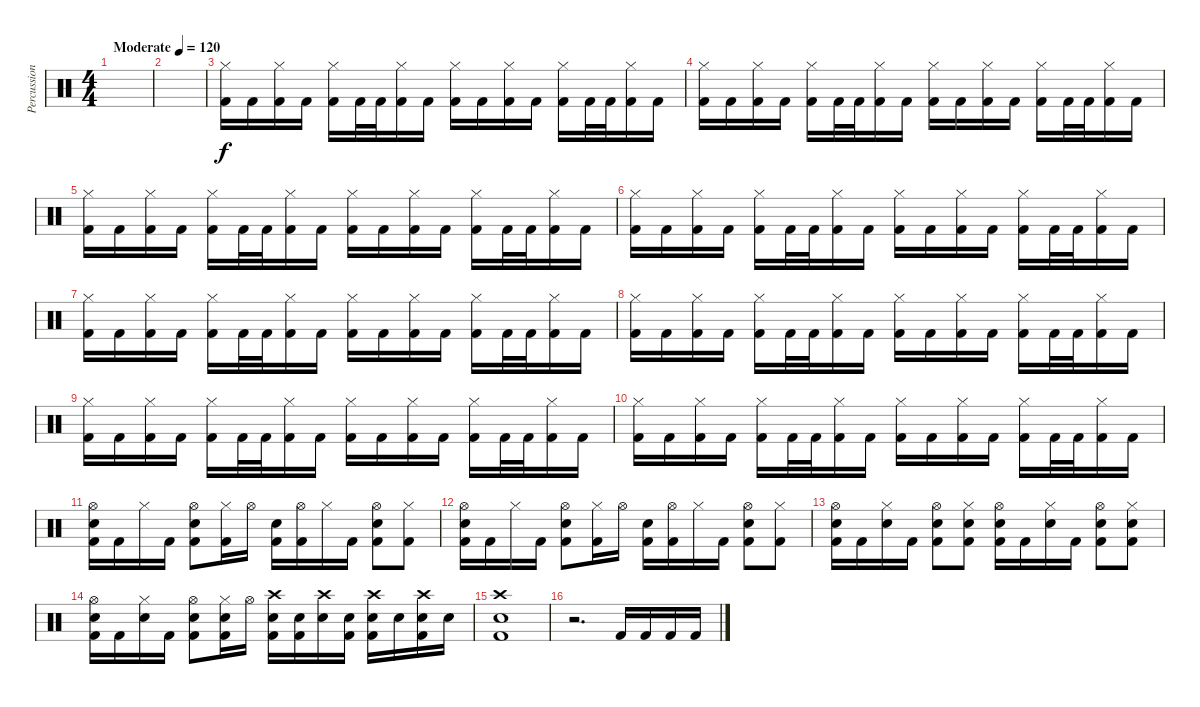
\track ("Percussions" "Percussion") {instrument percussion}
\staff {score}
\articulation defaults
\ts (4 4)
\tempo (120 "Moderate")
\clef neutral
\ks c
|
|
("Hi-Hat (closed)" "Kick (hit) 2").16 "Kick (hit) 2".16 ("Hi-Hat (closed)" "Kick (hit) 2").16 "Kick (hit) 2".16 ("Hi-Hat (closed)" "Kick (hit) 2").16 "Kick (hit) 2".32 "Kick (hit) 2".32 ("Hi-Hat (closed)" "Kick (hit) 2").16 "Kick (hit) 2".16 ("Hi-Hat (closed)" "Kick (hit) 2").16 "Kick (hit) 2".16 ("Hi-Hat (closed)" "Kick (hit) 2").16 "Kick (hit) 2".16 ("Hi-Hat (closed)" "Kick (hit) 2").16 "Kick (hit) 2".32 "Kick (hit) 2".32 ("Hi-Hat (closed)" "Kick (hit) 2").16 "Kick (hit) 2".16 |
("Hi-Hat (closed)" "Kick (hit) 2").16 "Kick (hit) 2".16 ("Hi-Hat (closed)" "Kick (hit) 2").16 "Kick (hit) 2".16 ("Hi-Hat (closed)" "Kick (hit) 2").16 "Kick (hit) 2".32 "Kick (hit) 2".32 ("Hi-Hat (closed)" "Kick (hit) 2").16 "Kick (hit) 2".16 ("Hi-Hat (closed)" "Kick (hit) 2").16 "Kick (hit) 2".16 ("Hi-Hat (closed)" "Kick (hit) 2").16 "Kick (hit) 2".16 ("Hi-Hat (closed)" "Kick (hit) 2").16 "Kick (hit) 2".32 "Kick (hit) 2".32 ("Hi-Hat (closed)" "Kick (hit) 2").16 "Kick (hit) 2".16 |
("Hi-Hat (closed)" "Kick (hit) 2").16 "Kick (hit) 2".16 ("Hi-Hat (closed)" "Kick (hit) 2").16 "Kick (hit) 2".16 ("Hi-Hat (closed)" "Kick (hit) 2").16 "Kick (hit) 2".32 "Kick (hit) 2".32 ("Hi-Hat (closed)" "Kick (hit) 2").16 "Kick (hit) 2".16 ("Hi-Hat (closed)" "Kick (hit) 2").16 "Kick (hit) 2".16 ("Hi-Hat (closed)" "Kick (hit) 2").16 "Kick (hit) 2".16 ("Hi-Hat (closed)" "Kick (hit) 2").16 "Kick (hit) 2".32 "Kick (hit) 2".32 ("Hi-Hat (closed)" "Kick (hit) 2").16 "Kick (hit) 2".16 |
("Hi-Hat (closed)" "Kick (hit) 2").16 "Kick (hit) 2".16 ("Hi-Hat (closed)" "Kick (hit) 2").16 "Kick (hit) 2".16 ("Hi-Hat (closed)" "Kick (hit) 2").16 "Kick (hit) 2".32 "Kick (hit) 2".32 ("Hi-Hat (closed)" "Kick (hit) 2").16 "Kick (hit) 2".16 ("Hi-Hat (closed)" "Kick (hit) 2").16 "Kick (hit) 2".16 ("Hi-Hat (closed)" "Kick (hit) 2").16 "Kick (hit) 2".16 ("Hi-Hat (closed)" "Kick (hit) 2").16 "Kick (hit) 2".32 "Kick (hit) 2".32 ("Hi-Hat (closed)" "Kick (hit) 2").16 "Kick (hit) 2".16 |
("Hi-Hat (closed)" "Kick (hit) 2").16 "Kick (hit) 2".16 ("Hi-Hat (closed)" "Kick (hit) 2").16 "Kick (hit) 2".16 ("Hi-Hat (closed)" "Kick (hit) 2").16 "Kick (hit) 2".32 "Kick (hit) 2".32 ("Hi-Hat (closed)" "Kick (hit) 2").16 "Kick (hit) 2".16 ("Hi-Hat (closed)" "Kick (hit) 2").16 "Kick (hit) 2".16 ("Hi-Hat (closed)" "Kick (hit) 2").16 "Kick (hit) 2".16 ("Hi-Hat (closed)" "Kick (hit) 2").16 "Kick (hit) 2".32 "Kick (hit) 2".32 ("Hi-Hat (closed)" "Kick (hit) 2").16 "Kick (hit) 2".16 |
("Hi-Hat (closed)" "Kick (hit) 2").16 "Kick (hit) 2".16 ("Hi-Hat (closed)" "Kick (hit) 2").16 "Kick (hit) 2".16 ("Hi-Hat (closed)" "Kick (hit) 2").16 "Kick (hit) 2".32 "Kick (hit) 2".32 ("Hi-Hat (closed)" "Kick (hit) 2").16 "Kick (hit) 2".16 ("Hi-Hat (closed)" "Kick (hit) 2").16 "Kick (hit) 2".16 ("Hi-Hat (closed)" "Kick (hit) 2").16 "Kick (hit) 2".16 ("Hi-Hat (closed)" "Kick (hit) 2").16 "Kick (hit) 2".32 "Kick (hit) 2".32 ("Hi-Hat (closed)" "Kick (hit) 2").16 "Kick (hit) 2".16 |
("Hi-Hat (closed)" "Kick (hit) 2").16 "Kick (hit) 2".16 ("Hi-Hat (closed)" "Kick (hit) 2").16 "Kick (hit) 2".16 ("Hi-Hat (closed)" "Kick (hit) 2").16 "Kick (hit) 2".32 "Kick (hit) 2".32 ("Hi-Hat (closed)" "Kick (hit) 2").16 "Kick (hit) 2".16 ("Hi-Hat (closed)" "Kick (hit) 2").16 "Kick (hit) 2".16 ("Hi-Hat (closed)" "Kick (hit) 2").16 "Kick (hit) 2".16 ("Hi-Hat (closed)" "Kick (hit) 2").16 "Kick (hit) 2".32 "Kick (hit) 2".32 ("Hi-Hat (closed)" "Kick (hit) 2").16 "Kick (hit) 2".16 |
("Hi-Hat (closed)" "Kick (hit) 2").16 "Kick (hit) 2".16 ("Hi-Hat (closed)" "Kick (hit) 2").16 "Kick (hit) 2".16 ("Hi-Hat (closed)" "Kick (hit) 2").16 "Kick (hit) 2".32 "Kick (hit) 2".32 ("Hi-Hat (closed)" "Kick (hit) 2").16 "Kick (hit) 2".16 ("Hi-Hat (closed)" "Kick (hit) 2").16 "Kick (hit) 2".16 ("Hi-Hat (closed)" "Kick (hit) 2").16 "Kick (hit) 2".16 ("Hi-Hat (closed)" "Kick (hit) 2").16 "Kick (hit) 2".32 "Kick (hit) 2".32 ("Hi-Hat (closed)" "Kick (hit) 2").16 "Kick (hit) 2".16 |
("Hi-Hat (open)" "Kick (hit) 2" "Snare (hit) 2").16 "Kick (hit) 2".16 "Hi-Hat (closed)".16 "Kick (hit) 2".16 ("Hi-Hat (open)" "Kick (hit) 2" "Snare (hit) 2").8 ("Hi-Hat (closed)" "Kick (hit) 2").16 "Hi-Hat (open)".16 ("Kick (hit) 2" "Snare (hit) 2").16 ("Hi-Hat (open)" "Kick (hit) 2").16 "Hi-Hat (closed)".16 "Kick (hit) 2".16 ("Hi-Hat (open)" "Kick (hit) 2" "Snare (hit) 2").8 ("Hi-Hat (closed)" "Kick (hit) 2").8 |
("Hi-Hat (open)" "Kick (hit) 2" "Snare (hit) 2").16 "Kick (hit) 2".16 "Hi-Hat (closed)".16 "Kick (hit) 2".16 ("Hi-Hat (open)" "Kick (hit) 2" "Snare (hit) 2").8 ("Hi-Hat (closed)" "Kick (hit) 2").16 "Hi-Hat (open)".16 ("Kick (hit) 2" "Snare (hit) 2").16 ("Hi-Hat (open)" "Kick (hit) 2").16 "Hi-Hat (closed)".16 "Kick (hit) 2".16 ("Hi-Hat (open)" "Kick (hit) 2" "Snare (hit) 2").8 ("Hi-Hat (closed)" "Kick (hit) 2").8 |
("Hi-Hat (open)" "Kick (hit) 2" "Snare (hit) 2").16 "Kick (hit) 2".16 ("Hi-Hat (closed)" "Snare (hit) 2").16 "Kick (hit) 2".16 ("Hi-Hat (open)" "Kick (hit) 2" "Snare (hit) 2").8 ("Hi-Hat (closed)" "Kick (hit) 2" "Snare (hit) 2").8 ("Hi-Hat (open)" "Kick (hit) 2" "Snare (hit) 2").16 "Kick (hit) 2".16 ("Hi-Hat (closed)" "Snare (hit) 2").16 "Kick (hit) 2".16 ("Hi-Hat (open)" "Kick (hit) 2" "Snare (hit) 2").8 ("Hi-Hat (closed)" "Kick (hit) 2" "Snare (hit) 2").8 |
("Hi-Hat (open)" "Kick (hit) 2" "Snare (hit) 2").16 "Kick (hit) 2".16 ("Hi-Hat (closed)" "Snare (hit) 2").16 "Kick (hit) 2".16 ("Hi-Hat (open)" "Kick (hit) 2" "Snare (hit) 2").8 ("Hi-Hat (closed)" "Kick (hit) 2" "Snare (hit) 2").16 "Hi-Hat (open)".16 ("Crash high (hit)" "Kick (hit) 2" "Snare (hit) 2").16 ("Kick (hit) 2" "Snare (hit) 2").16 ("Crash high (hit)" "Snare (hit) 2").16 ("Kick (hit) 2" "Snare (hit) 2").16 ("Crash high (hit)" "Kick (hit) 2" "Snare (hit) 2").16 "Snare (hit) 2".16 ("Crash high (hit)" "Kick (hit) 2" "Snare (hit) 2").16 "Snare (hit) 2".16 |
("Crash high (hit)" "Kick (hit) 2" "Snare (hit) 2").1 |
r.2{d} "Kick (hit) 2".16 "Kick (hit) 2".16 "Kick (hit) 2".16 "Kick (hit) 2".16
